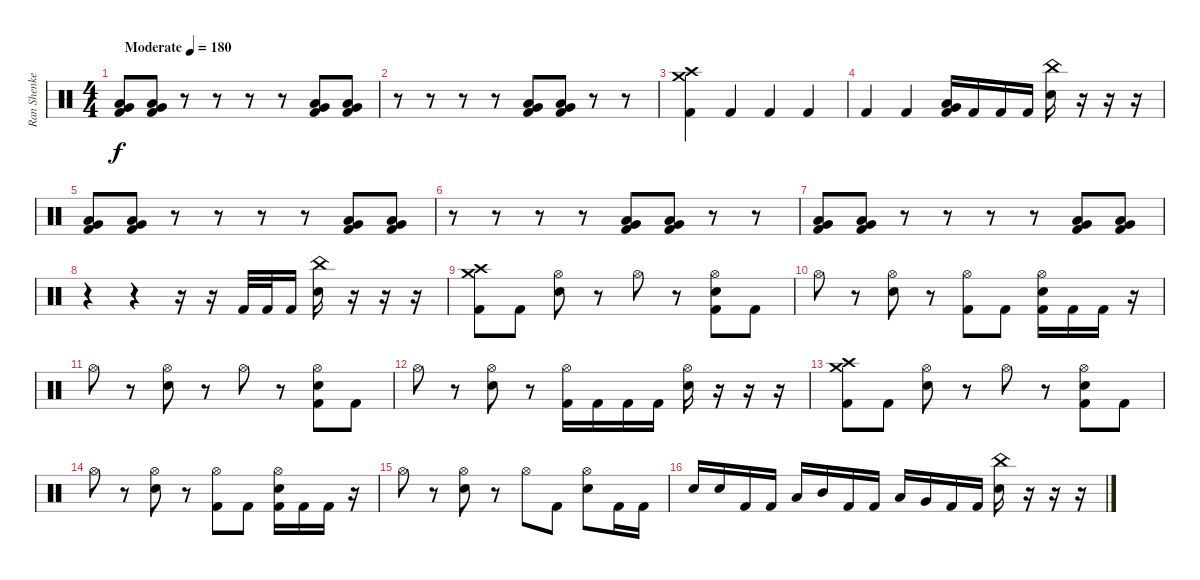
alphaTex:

\track ("Ran Shenkerman" "Ran Shenke") {instrument percussion}
\staff {score}
\articulation defaults
\ts (4 4)
\tempo (180 "Moderate")
\clef neutral
\ks c
("Very Low Tom (hit)" "Low Floor Tom (hit)" "Kick (hit) 2").8{dy f} ("Very Low Tom (hit)" "Low Floor Tom (hit)" "Kick (hit) 2").8 r.8 r.8 r.8 r.8 ("Very Low Tom (hit)" "Low Floor Tom (hit)" "Kick (hit) 2").8 ("Very Low Tom (hit)" "Low Floor Tom (hit)" "Kick (hit) 2").8 |
r.8 r.8 r.8 r.8 ("Very Low Tom (hit)" "Low Floor Tom (hit)" "Kick (hit) 2").8 ("Very Low Tom (hit)" "Low Floor Tom (hit)" "Kick (hit) 2").8 r.8 r.8 |
("Crash medium (hit)" "Crash high (hit)" "Kick (hit) 2").4 "Kick (hit) 2".4 "Kick (hit) 2".4 "Kick (hit) 2".4 |
"Kick (hit) 2".4 "Kick (hit) 2".4 ("Very Low Tom (hit)" "Low Floor Tom (hit)" "Kick (hit) 2").16 "Kick (hit) 2".16 "Kick (hit) 2".16 "Kick (hit) 2".16 ("China (hit)" "Snare (hit) 2").16 r.16 r.16 r.16 |
("Very Low Tom (hit)" "Low Floor Tom (hit)" "Kick (hit) 2").8 ("Very Low Tom (hit)" "Low Floor Tom (hit)" "Kick (hit) 2").8 r.8 r.8 r.8 r.8 ("Very Low Tom (hit)" "Low Floor Tom (hit)" "Kick (hit) 2").8 ("Very Low Tom (hit)" "Low Floor Tom (hit)" "Kick (hit) 2").8 |
r.8 r.8 r.8 r.8 ("Very Low Tom (hit)" "Low Floor Tom (hit)" "Kick (hit) 2").8 ("Very Low Tom (hit)" "Low Floor Tom (hit)" "Kick (hit) 2").8 r.8 r.8 |
("Very Low Tom (hit)" "Low Floor Tom (hit)" "Kick (hit) 2").8 ("Very Low Tom (hit)" "Low Floor Tom (hit)" "Kick (hit) 2").8 r.8 r.8 r.8 r.8 ("Very Low Tom (hit)" "Low Floor Tom (hit)" "Kick (hit) 2").8 ("Very Low Tom (hit)" "Low Floor Tom (hit)" "Kick (hit) 2").8 |
r.4 r.4 r.16 r.16 "Kick (hit) 2".32 "Kick (hit) 2".32 "Kick (hit) 2".16 ("China (hit)" "Snare (hit) 2").16 r.16 r.16 r.16 |
("Crash medium (hit)" "Crash high (hit)" "Kick (hit) 2").8 "Kick (hit) 2".8 ("Hi-Hat (open)" "Snare (hit) 2").8 r.8 "Hi-Hat (open)".8 r.8 ("Hi-Hat (open)" "Snare (hit) 2" "Kick (hit) 2").8 "Kick (hit) 2".8 |
"Hi-Hat (open)".8 r.8 ("Hi-Hat (open)" "Snare (hit) 2").8 r.8 ("Hi-Hat (open)" "Kick (hit) 2").8 "Kick (hit) 2".8 ("Hi-Hat (open)" "Snare (hit) 2" "Kick (hit) 2").16 "Kick (hit) 2".16 "Kick (hit) 2".16 r.16 |
"Hi-Hat (open)".8 r.8 ("Hi-Hat (open)" "Snare (hit) 2").8 r.8 "Hi-Hat (open)".8 r.8 ("Hi-Hat (open)" "Snare (hit) 2" "Kick (hit) 2").8 "Kick (hit) 2".8 |
"Hi-Hat (open)".8 r.8 ("Hi-Hat (open)" "Snare (hit) 2").8 r.8 ("Hi-Hat (open)" "Kick (hit) 2").16 "Kick (hit) 2".16 "Kick (hit) 2".16 "Kick (hit) 2".16 ("Hi-Hat (open)" "Snare (hit) 2").16 r.16 r.16 r.16 |
("Crash medium (hit)" "Crash high (hit)" "Kick (hit) 2").8 "Kick (hit) 2".8 ("Hi-Hat (open)" "Snare (hit) 2").8 r.8 "Hi-Hat (open)".8 r.8 ("Hi-Hat (open)" "Snare (hit) 2" "Kick (hit) 2").8 "Kick (hit) 2".8 |
"Hi-Hat (open)".8 r.8 ("Hi-Hat (open)" "Snare (hit) 2").8 r.8 ("Hi-Hat (open)" "Kick (hit) 2").8 "Kick (hit) 2".8 ("Hi-Hat (open)" "Snare (hit) 2" "Kick (hit) 2").16 "Kick (hit) 2".16 "Kick (hit) 2".16 r.16 |
"Hi-Hat (open)".8 r.8 ("Hi-Hat (open)" "Snare (hit) 2").8 r.8 "Hi-Hat (open)".8 "Kick (hit) 2".8 ("Hi-Hat (open)" "Snare (hit) 2").8 "Kick (hit) 2".16 "Kick (hit) 2".16 |
"Snare (hit) 2".16 "Snare (hit) 2".16 "Kick (hit) 2".16 "Kick (hit) 2".16 "Low Tom (hit)".16 "Mid Tom (hit)".16 "Kick (hit) 2".16 "Kick (hit) 2".16 "Low Floor Tom (hit)".16 "Very Low Tom (hit)".16 "Kick (hit) 2".16 "Kick (hit) 2".16 ("China (hit)" "Snare (hit) 2").16 r.16 r.16 r.16
